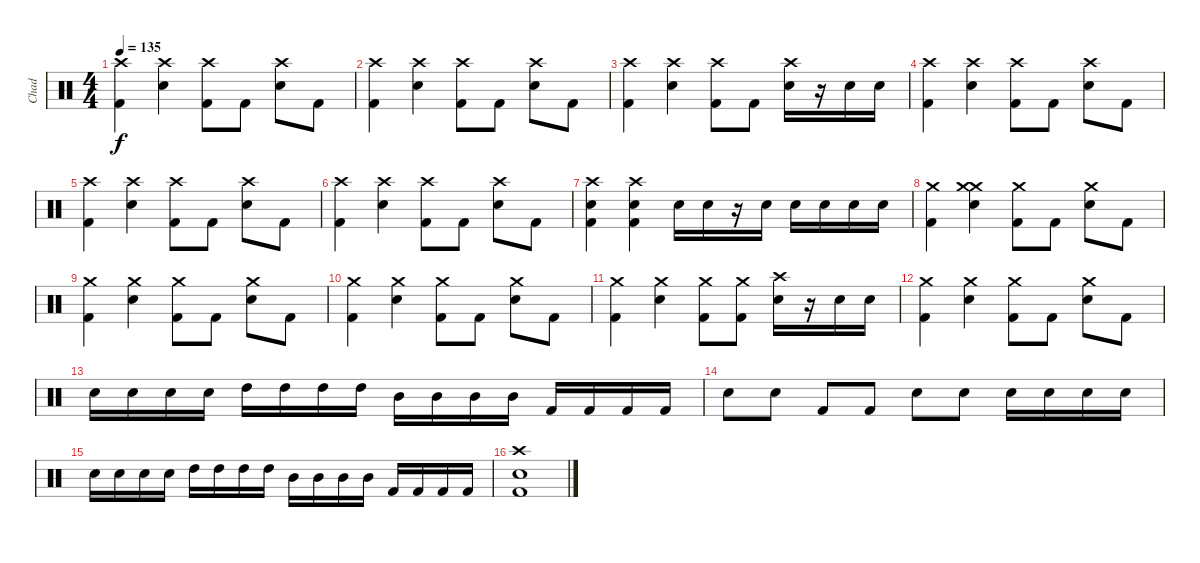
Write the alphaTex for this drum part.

\track ("Chad" "Chad") {instrument percussion}
\staff {score}
\articulation defaults
\ts (4 4)
\tempo 135
\clef neutral
\ks c
("Crash high (hit)" "Kick (hit) 2").4{dy f} ("Crash high (hit)" "Electric Snare (hit)").4 ("Crash high (hit)" "Kick (hit) 2").8 "Kick (hit) 2".8 ("Crash high (hit)" "Electric Snare (hit)").8 "Kick (hit) 2".8 |
("Crash high (hit)" "Kick (hit) 2").4 ("Crash high (hit)" "Electric Snare (hit)").4 ("Crash high (hit)" "Kick (hit) 2").8 "Kick (hit) 2".8 ("Crash high (hit)" "Electric Snare (hit)").8 "Kick (hit) 2".8 |
("Crash high (hit)" "Kick (hit) 2").4 ("Crash high (hit)" "Electric Snare (hit)").4 ("Crash high (hit)" "Kick (hit) 2").8 "Kick (hit) 2".8 ("Crash high (hit)" "Electric Snare (hit)").16 r.16 "Electric Snare (hit)".16 "Electric Snare (hit)".16 |
("Crash high (hit)" "Kick (hit) 2").4 ("Crash high (hit)" "Electric Snare (hit)").4 ("Crash high (hit)" "Kick (hit) 2").8 "Kick (hit) 2".8 ("Crash high (hit)" "Electric Snare (hit)").8 "Kick (hit) 2".8 |
("Crash high (hit)" "Kick (hit) 2").4 ("Crash high (hit)" "Electric Snare (hit)").4 ("Crash high (hit)" "Kick (hit) 2").8 "Kick (hit) 2".8 ("Crash high (hit)" "Electric Snare (hit)").8 "Kick (hit) 2".8 |
("Crash high (hit)" "Kick (hit) 2").4 ("Crash high (hit)" "Electric Snare (hit)").4 ("Crash high (hit)" "Kick (hit) 2").8 "Kick (hit) 2".8 ("Crash high (hit)" "Electric Snare (hit)").8 "Kick (hit) 2".8 |
("Crash high (hit)" "Electric Snare (hit)" "Kick (hit) 2").4 ("Crash high (hit)" "Electric Snare (hit)" "Kick (hit) 2").4 "Electric Snare (hit)".16 "Electric Snare (hit)".16 r.16 "Electric Snare (hit)".16 "Electric Snare (hit)".16 "Electric Snare (hit)".16 "Electric Snare (hit)".16 "Electric Snare (hit)".16 |
("Crash medium (hit)" "Kick (hit) 2").4 ("Crash medium (hit)" "Crash medium (hit)" "Electric Snare (hit)").4 ("Crash medium (hit)" "Kick (hit) 2").8 "Kick (hit) 2".8 ("Crash medium (hit)" "Electric Snare (hit)").8 "Kick (hit) 2".8 |
("Crash medium (hit)" "Kick (hit) 2").4 ("Crash medium (hit)" "Electric Snare (hit)").4 ("Crash medium (hit)" "Kick (hit) 2").8 "Kick (hit) 2".8 ("Crash medium (hit)" "Electric Snare (hit)").8 "Kick (hit) 2".8 |
("Crash medium (hit)" "Kick (hit) 2").4 ("Crash medium (hit)" "Electric Snare (hit)").4 ("Crash medium (hit)" "Kick (hit) 2").8 "Kick (hit) 2".8 ("Crash medium (hit)" "Electric Snare (hit)").8 "Kick (hit) 2".8 |
("Crash medium (hit)" "Kick (hit) 2").4 ("Crash medium (hit)" "Electric Snare (hit)").4 ("Crash medium (hit)" "Kick (hit) 2").8 ("Crash medium (hit)" "Kick (hit) 2").8 ("Crash high (hit)" "Electric Snare (hit)").16 r.16 "Electric Snare (hit)".16 "Electric Snare (hit)".16 |
("Crash medium (hit)" "Kick (hit) 2").4 ("Crash medium (hit)" "Electric Snare (hit)").4 ("Crash medium (hit)" "Kick (hit) 2").8 "Kick (hit) 2".8 ("Crash medium (hit)" "Electric Snare (hit)").8 "Kick (hit) 2".8 |
"Electric Snare (hit)".16 "Electric Snare (hit)".16 "Electric Snare (hit)".16 "Electric Snare (hit)".16 "High Tom (hit)".16 "High Tom (hit)".16 "High Tom (hit)".16 "High Tom (hit)".16 "Mid Tom (hit)".16 "Mid Tom (hit)".16 "Mid Tom (hit)".16 "Mid Tom (hit)".16 "Kick (hit) 2".16 "Kick (hit) 2".16 "Kick (hit) 2".16 "Kick (hit) 2".16 |
"Electric Snare (hit)".8 "Electric Snare (hit)".8 "Kick (hit) 2".8 "Kick (hit) 2".8 "Electric Snare (hit)".8 "Electric Snare (hit)".8 "Electric Snare (hit)".16 "Electric Snare (hit)".16 "Electric Snare (hit)".16 "Electric Snare (hit)".16 |
"Electric Snare (hit)".16 "Electric Snare (hit)".16 "Electric Snare (hit)".16 "Electric Snare (hit)".16 "High Tom (hit)".16 "High Tom (hit)".16 "High Tom (hit)".16 "High Tom (hit)".16 "Mid Tom (hit)".16 "Mid Tom (hit)".16 "Mid Tom (hit)".16 "Mid Tom (hit)".16 "Kick (hit) 2".16 "Kick (hit) 2".16 "Kick (hit) 2".16 "Kick (hit) 2".16 |
("Crash high (hit)" "Electric Snare (hit)" "Kick (hit) 2").1
